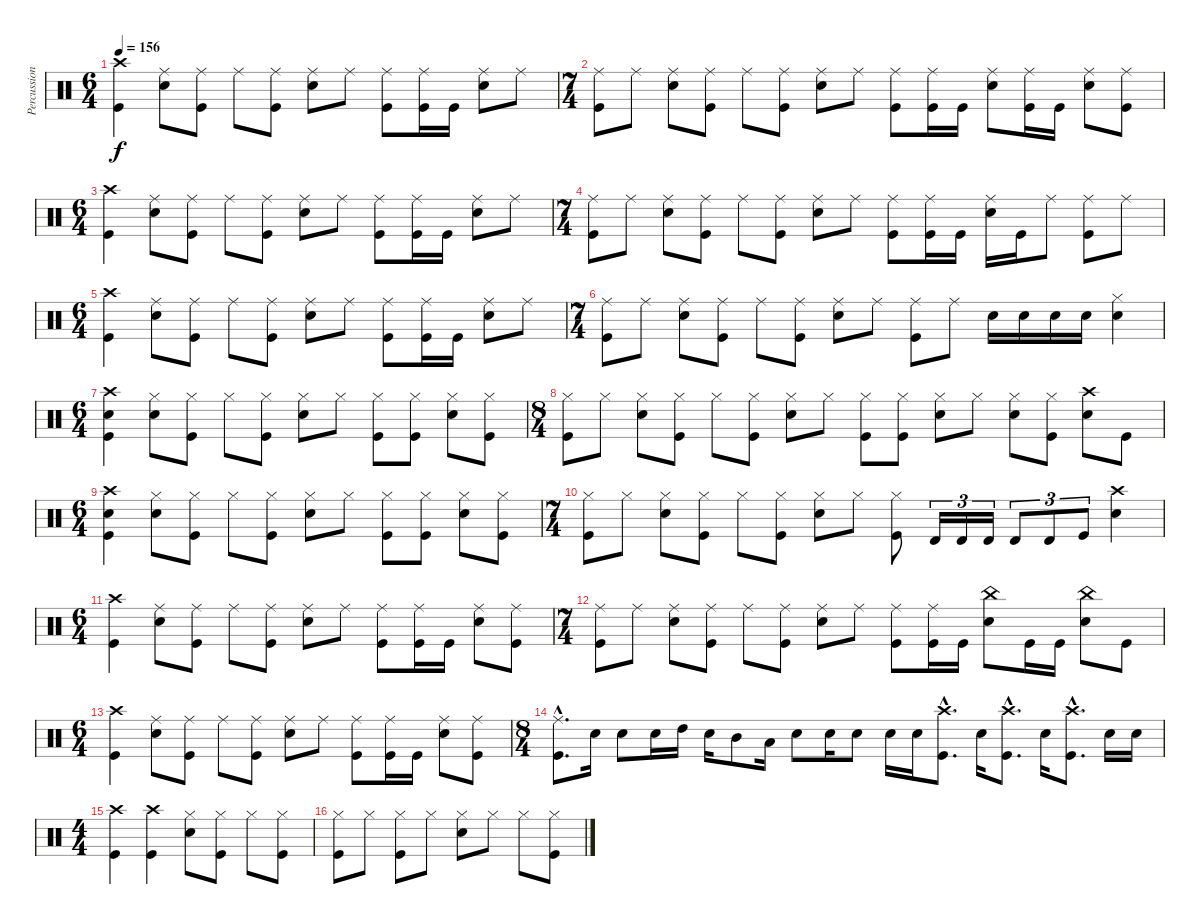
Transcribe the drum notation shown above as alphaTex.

\track ("Percussion" "Percussion") {instrument percussion}
\staff {score}
\articulation defaults
\ts (6 4)
\tempo 156
\clef neutral
\ks c
("Crash high (hit)" "Kick (hit)").4{dy f} ("Ride (middle)" "Electric Snare (hit)").8 ("Ride (middle)" "Kick (hit)").8 "Ride (middle)".8 ("Ride (middle)" "Kick (hit)").8 ("Ride (middle)" "Electric Snare (hit)").8 "Ride (middle)".8 ("Ride (middle)" "Kick (hit)").8 ("Ride (middle)" "Kick (hit)").16 "Kick (hit)".16 ("Ride (middle)" "Electric Snare (hit)").8 "Ride (middle)".8 |
\ts (7 4)
("Ride (middle)" "Kick (hit)").8 "Ride (middle)".8 ("Ride (middle)" "Electric Snare (hit)").8 ("Ride (middle)" "Kick (hit)").8 "Ride (middle)".8 ("Ride (middle)" "Kick (hit)").8 ("Ride (middle)" "Electric Snare (hit)").8 "Ride (middle)".8 ("Ride (middle)" "Kick (hit)").8 ("Ride (middle)" "Kick (hit)").16 "Kick (hit)".16 ("Ride (middle)" "Electric Snare (hit)").8 ("Ride (middle)" "Kick (hit)").16 "Kick (hit)".16 ("Ride (middle)" "Electric Snare (hit)").8 ("Ride (middle)" "Kick (hit)").8 |
\ts (6 4)
("Crash high (hit)" "Kick (hit)").4 ("Ride (middle)" "Electric Snare (hit)").8 ("Ride (middle)" "Kick (hit)").8 "Ride (middle)".8 ("Ride (middle)" "Kick (hit)").8 ("Ride (middle)" "Electric Snare (hit)").8 "Ride (middle)".8 ("Ride (middle)" "Kick (hit)").8 ("Ride (middle)" "Kick (hit)").16 "Kick (hit)".16 ("Ride (middle)" "Electric Snare (hit)").8 "Ride (middle)".8 |
\ts (7 4)
("Ride (middle)" "Kick (hit)").8 "Ride (middle)".8 ("Ride (middle)" "Electric Snare (hit)").8 ("Ride (middle)" "Kick (hit)").8 "Ride (middle)".8 ("Ride (middle)" "Kick (hit)").8 ("Ride (middle)" "Electric Snare (hit)").8 "Ride (middle)".8 ("Ride (middle)" "Kick (hit)").8 ("Ride (middle)" "Kick (hit)").16 "Kick (hit)".16 ("Ride (middle)" "Electric Snare (hit)").16 "Kick (hit)".16 "Ride (middle)".8 ("Ride (middle)" "Kick (hit)").8 "Ride (middle)".8 |
\ts (6 4)
("Crash high (hit)" "Kick (hit)").4 ("Ride (middle)" "Electric Snare (hit)").8 ("Ride (middle)" "Kick (hit)").8 "Ride (middle)".8 ("Ride (middle)" "Kick (hit)").8 ("Ride (middle)" "Electric Snare (hit)").8 "Ride (middle)".8 ("Ride (middle)" "Kick (hit)").8 ("Ride (middle)" "Kick (hit)").16 "Kick (hit)".16 ("Ride (middle)" "Electric Snare (hit)").8 "Ride (middle)".8 |
\ts (7 4)
("Ride (middle)" "Kick (hit)").8 "Ride (middle)".8 ("Ride (middle)" "Electric Snare (hit)").8 ("Ride (middle)" "Kick (hit)").8 "Ride (middle)".8 ("Ride (middle)" "Kick (hit)").8 ("Ride (middle)" "Electric Snare (hit)").8 "Ride (middle)".8 ("Ride (middle)" "Kick (hit)").8 "Ride (middle)".8 "Electric Snare (hit)".16 "Electric Snare (hit)".16 "Electric Snare (hit)".16 "Electric Snare (hit)".16 ("Hi-Hat (closed)" "Electric Snare (hit)").4 |
\ts (6 4)
("Crash high (hit)" "Electric Snare (hit)" "Kick (hit)").4 ("Hi-Hat (closed)" "Electric Snare (hit)").8 ("Hi-Hat (closed)" "Kick (hit)").8 "Hi-Hat (closed)".8 ("Hi-Hat (closed)" "Kick (hit)").8 ("Hi-Hat (closed)" "Electric Snare (hit)").8 "Hi-Hat (closed)".8 ("Hi-Hat (closed)" "Kick (hit)").8 ("Hi-Hat (closed)" "Kick (hit)").8 ("Hi-Hat (closed)" "Electric Snare (hit)").8 ("Hi-Hat (closed)" "Kick (hit)").8 |
\ts (8 4)
("Hi-Hat (closed)" "Kick (hit)").8 "Hi-Hat (closed)".8 ("Hi-Hat (closed)" "Electric Snare (hit)").8 ("Hi-Hat (closed)" "Kick (hit)").8 "Hi-Hat (closed)".8 ("Hi-Hat (closed)" "Kick (hit)").8 ("Hi-Hat (closed)" "Electric Snare (hit)").8 "Hi-Hat (closed)".8 ("Hi-Hat (closed)" "Kick (hit)").8 ("Hi-Hat (closed)" "Kick (hit)").8 ("Hi-Hat (closed)" "Electric Snare (hit)").8 "Hi-Hat (closed)".8 ("Hi-Hat (closed)" "Electric Snare (hit)").8 ("Hi-Hat (closed)" "Kick (hit)").8 ("Crash high (hit)" "Electric Snare (hit)").8 "Kick (hit)".8 |
\ts (6 4)
("Crash high (hit)" "Electric Snare (hit)" "Kick (hit)").4 ("Hi-Hat (closed)" "Electric Snare (hit)").8 ("Hi-Hat (closed)" "Kick (hit)").8 "Hi-Hat (closed)".8 ("Hi-Hat (closed)" "Kick (hit)").8 ("Hi-Hat (closed)" "Electric Snare (hit)").8 "Hi-Hat (closed)".8 ("Hi-Hat (closed)" "Kick (hit)").8 ("Hi-Hat (closed)" "Kick (hit)").8 ("Hi-Hat (closed)" "Electric Snare (hit)").8 ("Hi-Hat (closed)" "Kick (hit)").8 |
\ts (7 4)
("Hi-Hat (closed)" "Kick (hit)").8 "Hi-Hat (closed)".8 ("Hi-Hat (closed)" "Electric Snare (hit)").8 ("Hi-Hat (closed)" "Kick (hit)").8 "Hi-Hat (closed)".8 ("Hi-Hat (closed)" "Kick (hit)").8 ("Hi-Hat (closed)" "Electric Snare (hit)").8 "Hi-Hat (closed)".8 ("Hi-Hat (closed)" "Kick (hit)").8 "Timbale high (hit)".16{tu (3 2)} "Timbale high (hit)".16{tu (3 2)} "Timbale high (hit)".16{tu (3 2)} "Timbale high (hit)".8{tu (3 2)} "Timbale high (hit)".8{tu (3 2)} "Kick (hit)".8{tu (3 2)} ("Crash high (hit)" "Electric Snare (hit)").4 |
\ts (6 4)
("Crash high (hit)" "Kick (hit)").4 ("Ride (middle)" "Electric Snare (hit)").8 ("Ride (middle)" "Kick (hit)").8 "Ride (middle)".8 ("Ride (middle)" "Kick (hit)").8 ("Ride (middle)" "Electric Snare (hit)").8 "Ride (middle)".8 ("Ride (middle)" "Kick (hit)").8 ("Ride (middle)" "Kick (hit)").16 "Kick (hit)".16 ("Ride (middle)" "Electric Snare (hit)").8 ("Ride (middle)" "Kick (hit)").8 |
\ts (7 4)
("Ride (middle)" "Kick (hit)").8 "Ride (middle)".8 ("Ride (middle)" "Electric Snare (hit)").8 ("Ride (middle)" "Kick (hit)").8 "Ride (middle)".8 ("Ride (middle)" "Kick (hit)").8 ("Ride (middle)" "Electric Snare (hit)").8 "Ride (middle)".8 ("Ride (middle)" "Kick (hit)").8 ("Ride (middle)" "Kick (hit)").16 "Kick (hit)".16 ("China (hit)" "Electric Snare (hit)").8 "Kick (hit)".16 "Kick (hit)".16 ("China (hit)" "Electric Snare (hit)").8 "Kick (hit)".8 |
\ts (6 4)
("Crash high (hit)" "Kick (hit)").4 ("Ride (middle)" "Electric Snare (hit)").8 ("Ride (middle)" "Kick (hit)").8 "Ride (middle)".8 ("Ride (middle)" "Kick (hit)").8 ("Ride (middle)" "Electric Snare (hit)").8 "Ride (middle)".8 ("Ride (middle)" "Kick (hit)").8 ("Ride (middle)" "Kick (hit)").16 "Kick (hit)".16 ("Ride (middle)" "Electric Snare (hit)").8 ("Ride (middle)" "Kick (hit)").8 |
\ts (8 4)
("Ride (middle)"{hac} "Kick (hit)"{hac}).8{d} "Electric Snare (hit)".16 "Electric Snare (hit)".8 "Electric Snare (hit)".16 "High Tom (hit)".16 "Electric Snare (hit)".16 "Mid Tom (hit)".8 "Low Tom (hit)".16 "Electric Snare (hit)".8 "Electric Snare (hit)".16 "Electric Snare (hit)".8 "Electric Snare (hit)".16 "Electric Snare (hit)".16 ("Crash high (hit)"{hac} "Kick (hit)"{hac}).8{d} "Electric Snare (hit)".16 ("Crash high (hit)"{hac} "Kick (hit)"{hac}).8{d} "Electric Snare (hit)".16 ("Crash high (hit)"{hac} "Kick (hit)"{hac}).8{d} "Electric Snare (hit)".16 "Electric Snare (hit)".16 |
\ts (4 4)
("Crash high (hit)" "Kick (hit)").4 ("Crash high (hit)" "Kick (hit)").4 ("Hi-Hat (closed)" "Electric Snare (hit)").8 ("Hi-Hat (closed)" "Kick (hit)").8 "Hi-Hat (closed)".8 ("Hi-Hat (closed)" "Kick (hit)").8 |
("Hi-Hat (closed)" "Kick (hit)").8 "Hi-Hat (closed)".8 ("Hi-Hat (closed)" "Kick (hit)").8 "Hi-Hat (closed)".8 ("Hi-Hat (closed)" "Electric Snare (hit)").8 "Hi-Hat (closed)".8 "Hi-Hat (closed)".8 ("Hi-Hat (closed)" "Kick (hit)").8
